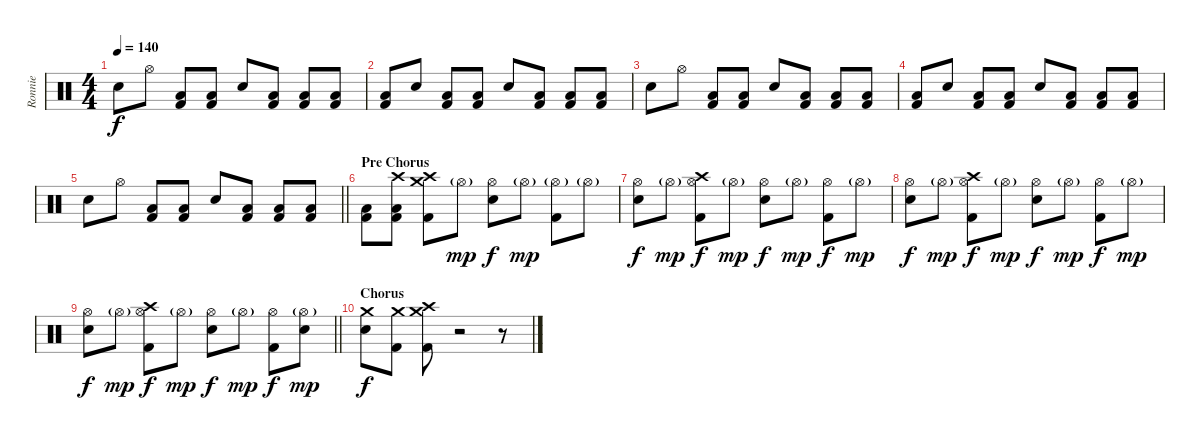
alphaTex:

\track ("Ronnie" "Ronnie") {instrument percussion}
\staff {score}
\articulation defaults
\ts (4 4)
\tempo 140
\clef neutral
\ks c "Electric Snare (hit)".8{dy f} "Hi-Hat (open)".8
("Low Tom (hit)" "Kick (hit) 2").8 ("Low Tom (hit)" "Kick (hit) 2").8 "Electric Snare (hit)".8 ("Low Tom (hit)" "Kick (hit) 2").8 ("Low Tom (hit)" "Kick (hit) 2").8 ("Low Tom (hit)" "Kick (hit) 2").8 |
("Low Tom (hit)" "Kick (hit) 2").8 "Electric Snare (hit)".8 ("Low Tom (hit)" "Kick (hit) 2").8 ("Low Tom (hit)" "Kick (hit) 2").8 "Electric Snare (hit)".8 ("Low Tom (hit)" "Kick (hit) 2").8 ("Low Tom (hit)" "Kick (hit) 2").8 ("Low Tom (hit)" "Kick (hit) 2").8 |
"Electric Snare (hit)".8 "Hi-Hat (open)".8 ("Low Tom (hit)" "Kick (hit) 2").8 ("Low Tom (hit)" "Kick (hit) 2").8 "Electric Snare (hit)".8 ("Low Tom (hit)" "Kick (hit) 2").8 ("Low Tom (hit)" "Kick (hit) 2").8 ("Low Tom (hit)" "Kick (hit) 2").8 |
("Low Tom (hit)" "Kick (hit) 2").8 "Electric Snare (hit)".8 ("Low Tom (hit)" "Kick (hit) 2").8 ("Low Tom (hit)" "Kick (hit) 2").8 "Electric Snare (hit)".8 ("Low Tom (hit)" "Kick (hit) 2").8 ("Low Tom (hit)" "Kick (hit) 2").8 ("Low Tom (hit)" "Kick (hit) 2").8 |
\barLineRight lightlight "Electric Snare (hit)".8 "Hi-Hat (open)".8
("Low Tom (hit)" "Kick (hit) 2").8 ("Low Tom (hit)" "Kick (hit) 2").8 "Electric Snare (hit)".8 ("Low Tom (hit)" "Kick (hit) 2").8 ("Low Tom (hit)" "Kick (hit) 2").8 ("Low Tom (hit)" "Kick (hit) 2").8 |
\section ("" "Pre Chorus")
("Low Tom (hit)" "Kick (hit) 2").8 ("Crash high (hit)" "Low Tom (hit)" "Kick (hit) 2").8 ("Crash high (hit)" "Crash medium (hit)" "Kick (hit) 2").8 "Hi-Hat (open)"{g}.8{dy mp} ("Hi-Hat (open)" "Electric Snare (hit)").8{dy f} "Hi-Hat (open)"{g}.8{dy mp} ("Hi-Hat (open)"{g} "Kick (hit) 2").8 "Hi-Hat (open)"{g}.8 |
("Hi-Hat (open)" "Electric Snare (hit)").8{dy f} "Hi-Hat (open)"{g}.8{dy mp} ("Crash high (hit)" "Hi-Hat (open)" "Kick (hit) 2").8{dy f} "Hi-Hat (open)"{g}.8{dy mp} ("Hi-Hat (open)" "Electric Snare (hit)").8{dy f} "Hi-Hat (open)"{g}.8{dy mp} ("Hi-Hat (open)" "Kick (hit) 2").8{dy f} "Hi-Hat (open)"{g}.8{dy mp} |
("Hi-Hat (open)" "Electric Snare (hit)").8{dy f} "Hi-Hat (open)"{g}.8{dy mp} ("Crash high (hit)" "Hi-Hat (open)" "Kick (hit) 2").8{dy f} "Hi-Hat (open)"{g}.8{dy mp} ("Hi-Hat (open)" "Electric Snare (hit)").8{dy f} "Hi-Hat (open)"{g}.8{dy mp} ("Hi-Hat (open)" "Kick (hit) 2").8{dy f} "Hi-Hat (open)"{g}.8{dy mp} |
\barLineRight lightlight
("Hi-Hat (open)" "Electric Snare (hit)").8{dy f} "Hi-Hat (open)"{g}.8{dy mp} ("Crash high (hit)" "Hi-Hat (open)" "Kick (hit) 2").8{dy f} "Hi-Hat (open)"{g}.8{dy mp} ("Hi-Hat (open)" "Electric Snare (hit)").8{dy f} "Hi-Hat (open)"{g}.8{dy mp} ("Hi-Hat (open)" "Kick (hit) 2").8{dy f} ("Hi-Hat (open)"{g} "Electric Snare (hit)").8{dy mp} |
\section ("" "Chorus")
("Crash medium (hit)" "Electric Snare (hit)").8{dy f} ("Crash medium (hit)" "Kick (hit) 2").8 ("Crash medium (hit)" "Kick (hit) 2" "Crash high (hit)").8 r.2 r.8
